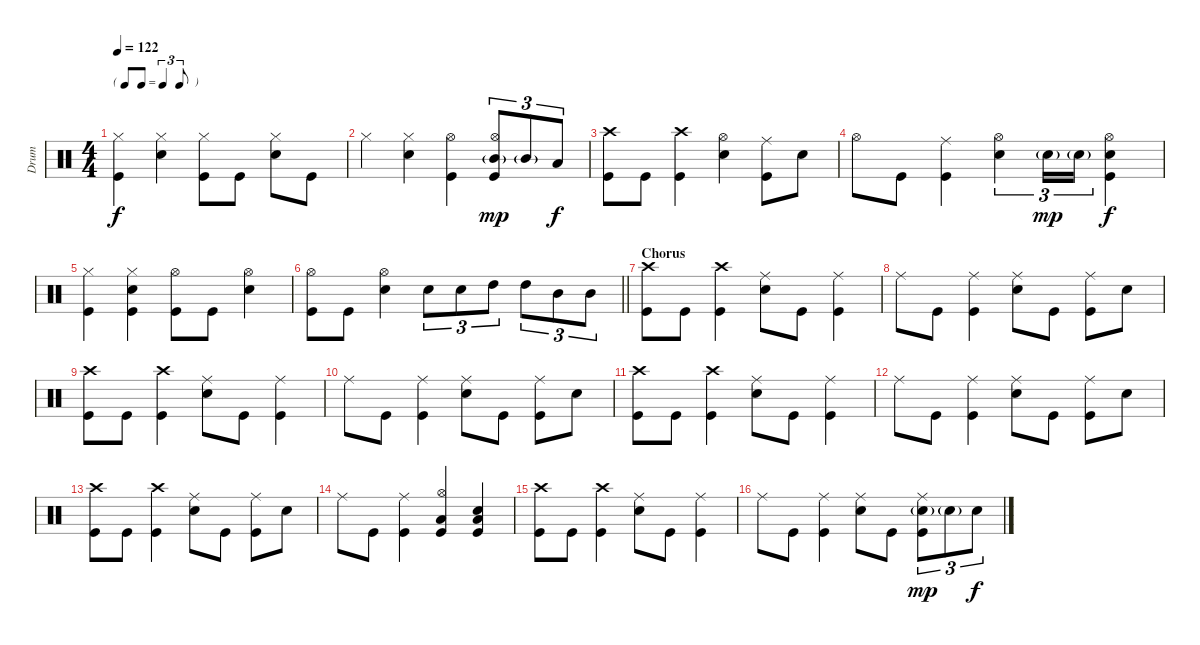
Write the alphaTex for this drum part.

\track ("Drum" "Drum") {instrument percussion}
\staff {score}
\articulation defaults
\ts (4 4)
\tf triplet8th
\tempo 122
\clef neutral
\ks c
("Hi-Hat (closed)" "Kick (hit)").4{dy f} ("Hi-Hat (closed)" "Electric Snare (hit)").4 ("Hi-Hat (closed)" "Kick (hit)").8 "Kick (hit)".8 ("Hi-Hat (closed)" "Electric Snare (hit)").8 "Kick (hit)".8 |
"Hi-Hat (closed)".4 ("Hi-Hat (closed)" "Electric Snare (hit)").4 ("Hi-Hat (open)" "Kick (hit)").4 ("Hi-Hat (open)" "Mid Tom (hit)"{g} "Kick (hit)").8{tu (3 2) dy mp} "Mid Tom (hit)"{g}.8{tu (3 2)} "Low Tom (hit)".8{tu (3 2) dy f} |
("Crash high (hit)" "Kick (hit)").8 "Kick (hit)".8 ("Crash high (hit)" "Kick (hit)").4 ("Hi-Hat (open)" "Electric Snare (hit)").4 ("Ride (middle)" "Kick (hit)").8 "Electric Snare (hit)".8 |
"Hi-Hat (open)".8 "Kick (hit)".8 ("Ride (middle)" "Kick (hit)").4 ("Hi-Hat (open)" "Electric Snare (hit)").4{tu (3 2)} "Electric Snare (hit)"{g}.16{tu (3 2) dy mp} "Electric Snare (hit)"{g}.16{tu (3 2)} ("Hi-Hat (open)" "Electric Snare (hit)" "Kick (hit)").4{dy f} |
("Hi-Hat (closed)" "Kick (hit)").4 ("Hi-Hat (closed)" "Electric Snare (hit)" "Kick (hit)").4 ("Hi-Hat (open)" "Kick (hit)").8 "Kick (hit)".8 ("Hi-Hat (open)" "Electric Snare (hit)").4 |
\barLineRight lightlight
("Hi-Hat (open)" "Kick (hit)").8 "Kick (hit)".8 ("Hi-Hat (open)" "Electric Snare (hit)").4 "Electric Snare (hit)".8{tu (3 2)} "Electric Snare (hit)".8{tu (3 2)} "High Tom (hit)".8{tu (3 2)} "High Tom (hit)".8{tu (3 2)} "Mid Tom (hit)".8{tu (3 2)} "Mid Tom (hit)".8{tu (3 2)} |
\section ("" "Chorus")
("Crash high (hit)" "Kick (hit)").8 "Kick (hit)".8 ("Crash high (hit)" "Kick (hit)").4 ("Ride (middle)" "Electric Snare (hit)").8 "Kick (hit)".8 ("Ride (middle)" "Kick (hit)").4 |
"Ride (middle)".8 "Kick (hit)".8 ("Ride (middle)" "Kick (hit)").4 ("Ride (middle)" "Electric Snare (hit)").8 "Kick (hit)".8 ("Ride (middle)" "Kick (hit)").8 "Electric Snare (hit)".8 |
("Crash high (hit)" "Kick (hit)").8 "Kick (hit)".8 ("Crash high (hit)" "Kick (hit)").4 ("Ride (middle)" "Electric Snare (hit)").8 "Kick (hit)".8 ("Ride (middle)" "Kick (hit)").4 |
"Ride (middle)".8 "Kick (hit)".8 ("Ride (middle)" "Kick (hit)").4 ("Ride (middle)" "Electric Snare (hit)").8 "Kick (hit)".8 ("Ride (middle)" "Kick (hit)").8 "Electric Snare (hit)".8 |
("Crash high (hit)" "Kick (hit)").8 "Kick (hit)".8 ("Crash high (hit)" "Kick (hit)").4 ("Ride (middle)" "Electric Snare (hit)").8 "Kick (hit)".8 ("Ride (middle)" "Kick (hit)").4 |
"Ride (middle)".8 "Kick (hit)".8 ("Ride (middle)" "Kick (hit)").4 ("Ride (middle)" "Electric Snare (hit)").8 "Kick (hit)".8 ("Ride (middle)" "Kick (hit)").8 "Electric Snare (hit)".8 |
("Crash high (hit)" "Kick (hit)").8 "Kick (hit)".8 ("Crash high (hit)" "Kick (hit)").4 ("Ride (middle)" "Electric Snare (hit)").8 "Kick (hit)".8 ("Ride (middle)" "Kick (hit)").8 "Electric Snare (hit)".8 |
"Ride (middle)".8 "Kick (hit)".8 ("Ride (middle)" "Kick (hit)").4 ("Hi-Hat (open)" "Low Tom (hit)" "Kick (hit)").4 ("Electric Snare (hit)" "Low Floor Tom (hit)" "Kick (hit)").4 |
("Crash high (hit)" "Kick (hit)").8 "Kick (hit)".8 ("Crash high (hit)" "Kick (hit)").4 ("Ride (middle)" "Electric Snare (hit)").8 "Kick (hit)".8 ("Ride (middle)" "Kick (hit)").4 |
"Ride (middle)".8 "Kick (hit)".8 ("Ride (middle)" "Kick (hit)").4 ("Ride (middle)" "Electric Snare (hit)").8 "Kick (hit)".8 ("Ride (middle)" "Electric Snare (hit)"{g} "Kick (hit)").8{tu (3 2) dy mp} "Electric Snare (hit)"{g}.8{tu (3 2)} "Electric Snare (hit)".8{tu (3 2) dy f}
